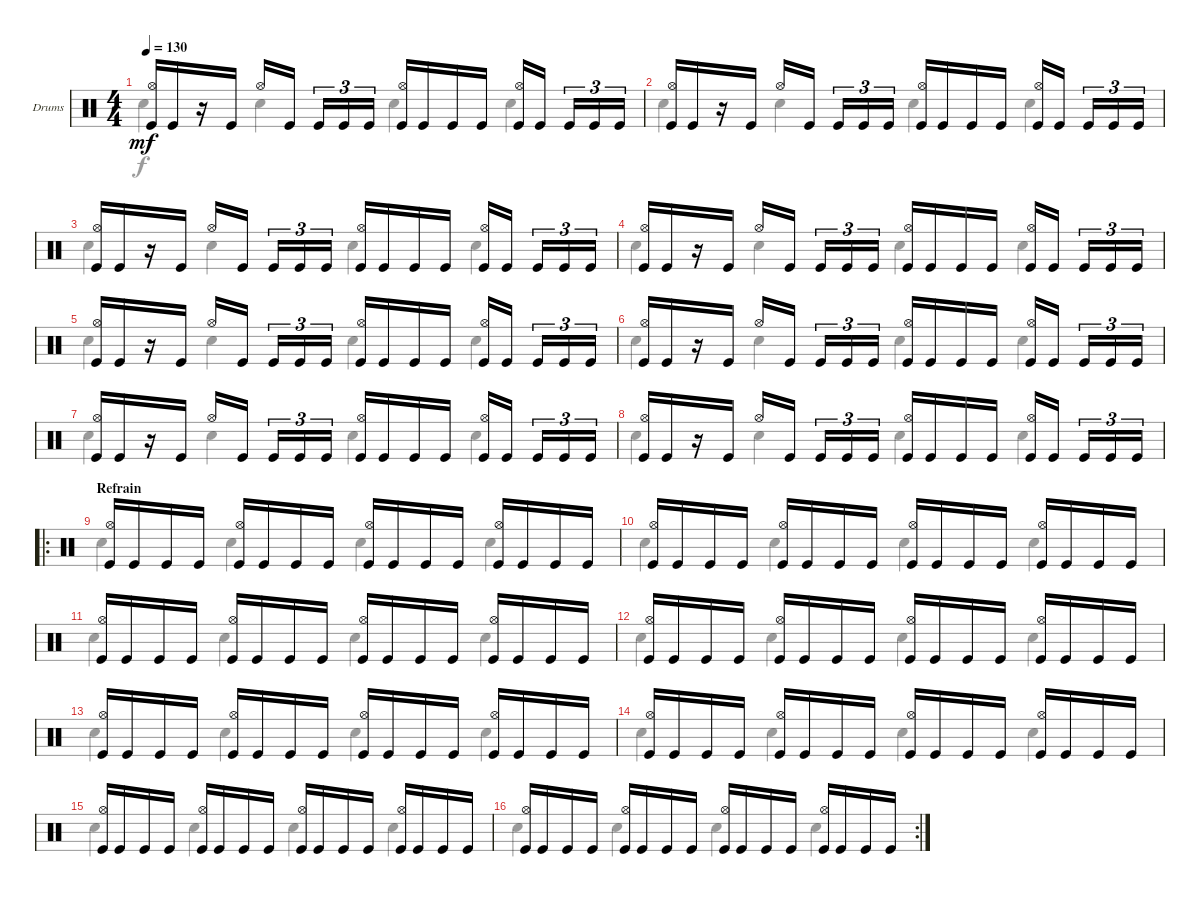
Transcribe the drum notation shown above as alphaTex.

\bracketExtendMode groupsimilarinstruments
\firstSystemTrackNameOrientation horizontal
\otherSystemsTrackNameOrientation horizontal
\track ("Drumkit" "Drums") {instrument percussion}
\staff {score}
\articulation defaults
\voice
\ts (4 4)
\tempo 130
\clef neutral
\ks c
("Kick (hit)" "Hi-Hat (open)").16{dy mf} "Kick (hit)".16 r.16 "Kick (hit)".16 "Hi-Hat (open)".16 "Kick (hit)".16 "Kick (hit)".16{tu (3 2)} "Kick (hit)".16{tu (3 2)} "Kick (hit)".16{tu (3 2)} ("Kick (hit)" "Hi-Hat (open)").16 "Kick (hit)".16 "Kick (hit)".16 "Kick (hit)".16 ("Kick (hit)" "Hi-Hat (open)").16 "Kick (hit)".16 "Kick (hit)".16{tu (3 2)} "Kick (hit)".16{tu (3 2)} "Kick (hit)".16{tu (3 2)} |
("Kick (hit)" "Hi-Hat (open)").16 "Kick (hit)".16 r.16 "Kick (hit)".16 "Hi-Hat (open)".16 "Kick (hit)".16 "Kick (hit)".16{tu (3 2)} "Kick (hit)".16{tu (3 2)} "Kick (hit)".16{tu (3 2)} ("Kick (hit)" "Hi-Hat (open)").16 "Kick (hit)".16 "Kick (hit)".16 "Kick (hit)".16 ("Kick (hit)" "Hi-Hat (open)").16 "Kick (hit)".16 "Kick (hit)".16{tu (3 2)} "Kick (hit)".16{tu (3 2)} "Kick (hit)".16{tu (3 2)} |
("Kick (hit)" "Hi-Hat (open)").16 "Kick (hit)".16 r.16 "Kick (hit)".16 "Hi-Hat (open)".16 "Kick (hit)".16 "Kick (hit)".16{tu (3 2)} "Kick (hit)".16{tu (3 2)} "Kick (hit)".16{tu (3 2)} ("Kick (hit)" "Hi-Hat (open)").16 "Kick (hit)".16 "Kick (hit)".16 "Kick (hit)".16 ("Kick (hit)" "Hi-Hat (open)").16 "Kick (hit)".16 "Kick (hit)".16{tu (3 2)} "Kick (hit)".16{tu (3 2)} "Kick (hit)".16{tu (3 2)} |
("Kick (hit)" "Hi-Hat (open)").16 "Kick (hit)".16 r.16 "Kick (hit)".16 "Hi-Hat (open)".16 "Kick (hit)".16 "Kick (hit)".16{tu (3 2)} "Kick (hit)".16{tu (3 2)} "Kick (hit)".16{tu (3 2)} ("Kick (hit)" "Hi-Hat (open)").16 "Kick (hit)".16 "Kick (hit)".16 "Kick (hit)".16 ("Kick (hit)" "Hi-Hat (open)").16 "Kick (hit)".16 "Kick (hit)".16{tu (3 2)} "Kick (hit)".16{tu (3 2)} "Kick (hit)".16{tu (3 2)} |
("Kick (hit)" "Hi-Hat (open)").16 "Kick (hit)".16 r.16 "Kick (hit)".16 "Hi-Hat (open)".16 "Kick (hit)".16 "Kick (hit)".16{tu (3 2)} "Kick (hit)".16{tu (3 2)} "Kick (hit)".16{tu (3 2)} ("Kick (hit)" "Hi-Hat (open)").16 "Kick (hit)".16 "Kick (hit)".16 "Kick (hit)".16 ("Kick (hit)" "Hi-Hat (open)").16 "Kick (hit)".16 "Kick (hit)".16{tu (3 2)} "Kick (hit)".16{tu (3 2)} "Kick (hit)".16{tu (3 2)} |
("Kick (hit)" "Hi-Hat (open)").16 "Kick (hit)".16 r.16 "Kick (hit)".16 "Hi-Hat (open)".16 "Kick (hit)".16 "Kick (hit)".16{tu (3 2)} "Kick (hit)".16{tu (3 2)} "Kick (hit)".16{tu (3 2)} ("Kick (hit)" "Hi-Hat (open)").16 "Kick (hit)".16 "Kick (hit)".16 "Kick (hit)".16 ("Kick (hit)" "Hi-Hat (open)").16 "Kick (hit)".16 "Kick (hit)".16{tu (3 2)} "Kick (hit)".16{tu (3 2)} "Kick (hit)".16{tu (3 2)} |
("Kick (hit)" "Hi-Hat (open)").16 "Kick (hit)".16 r.16 "Kick (hit)".16 "Hi-Hat (open)".16 "Kick (hit)".16 "Kick (hit)".16{tu (3 2)} "Kick (hit)".16{tu (3 2)} "Kick (hit)".16{tu (3 2)} ("Kick (hit)" "Hi-Hat (open)").16 "Kick (hit)".16 "Kick (hit)".16 "Kick (hit)".16 ("Kick (hit)" "Hi-Hat (open)").16 "Kick (hit)".16 "Kick (hit)".16{tu (3 2)} "Kick (hit)".16{tu (3 2)} "Kick (hit)".16{tu (3 2)} |
("Kick (hit)" "Hi-Hat (open)").16 "Kick (hit)".16 r.16 "Kick (hit)".16 "Hi-Hat (open)".16 "Kick (hit)".16 "Kick (hit)".16{tu (3 2)} "Kick (hit)".16{tu (3 2)} "Kick (hit)".16{tu (3 2)} ("Kick (hit)" "Hi-Hat (open)").16 "Kick (hit)".16 "Kick (hit)".16 "Kick (hit)".16 ("Kick (hit)" "Hi-Hat (open)").16 "Kick (hit)".16 "Kick (hit)".16{tu (3 2)} "Kick (hit)".16{tu (3 2)} "Kick (hit)".16{tu (3 2)} |
\ro
\section ("" "Refrain")
\ks aminor
("Kick (hit)" "Hi-Hat (open)").16 "Kick (hit)".16 "Kick (hit)".16 "Kick (hit)".16 ("Kick (hit)" "Hi-Hat (open)").16 "Kick (hit)".16 "Kick (hit)".16 "Kick (hit)".16 ("Kick (hit)" "Hi-Hat (open)").16 "Kick (hit)".16 "Kick (hit)".16 "Kick (hit)".16 ("Kick (hit)" "Hi-Hat (open)").16 "Kick (hit)".16 "Kick (hit)".16 "Kick (hit)".16 |
("Kick (hit)" "Hi-Hat (open)").16 "Kick (hit)".16 "Kick (hit)".16 "Kick (hit)".16 ("Kick (hit)" "Hi-Hat (open)").16 "Kick (hit)".16 "Kick (hit)".16 "Kick (hit)".16 ("Kick (hit)" "Hi-Hat (open)").16 "Kick (hit)".16 "Kick (hit)".16 "Kick (hit)".16 ("Kick (hit)" "Hi-Hat (open)").16 "Kick (hit)".16 "Kick (hit)".16 "Kick (hit)".16 |
("Kick (hit)" "Hi-Hat (open)").16 "Kick (hit)".16 "Kick (hit)".16 "Kick (hit)".16 ("Kick (hit)" "Hi-Hat (open)").16 "Kick (hit)".16 "Kick (hit)".16 "Kick (hit)".16 ("Kick (hit)" "Hi-Hat (open)").16 "Kick (hit)".16 "Kick (hit)".16 "Kick (hit)".16 ("Kick (hit)" "Hi-Hat (open)").16 "Kick (hit)".16 "Kick (hit)".16 "Kick (hit)".16 |
("Kick (hit)" "Hi-Hat (open)").16 "Kick (hit)".16 "Kick (hit)".16 "Kick (hit)".16 ("Kick (hit)" "Hi-Hat (open)").16 "Kick (hit)".16 "Kick (hit)".16 "Kick (hit)".16 ("Kick (hit)" "Hi-Hat (open)").16 "Kick (hit)".16 "Kick (hit)".16 "Kick (hit)".16 ("Kick (hit)" "Hi-Hat (open)").16 "Kick (hit)".16 "Kick (hit)".16 "Kick (hit)".16 |
("Kick (hit)" "Hi-Hat (open)").16 "Kick (hit)".16 "Kick (hit)".16 "Kick (hit)".16 ("Kick (hit)" "Hi-Hat (open)").16 "Kick (hit)".16 "Kick (hit)".16 "Kick (hit)".16 ("Kick (hit)" "Hi-Hat (open)").16 "Kick (hit)".16 "Kick (hit)".16 "Kick (hit)".16 ("Kick (hit)" "Hi-Hat (open)").16 "Kick (hit)".16 "Kick (hit)".16 "Kick (hit)".16 |
("Kick (hit)" "Hi-Hat (open)").16 "Kick (hit)".16 "Kick (hit)".16 "Kick (hit)".16 ("Kick (hit)" "Hi-Hat (open)").16 "Kick (hit)".16 "Kick (hit)".16 "Kick (hit)".16 ("Kick (hit)" "Hi-Hat (open)").16 "Kick (hit)".16 "Kick (hit)".16 "Kick (hit)".16 ("Kick (hit)" "Hi-Hat (open)").16 "Kick (hit)".16 "Kick (hit)".16 "Kick (hit)".16 |
("Kick (hit)" "Hi-Hat (open)").16 "Kick (hit)".16 "Kick (hit)".16 "Kick (hit)".16 ("Kick (hit)" "Hi-Hat (open)").16 "Kick (hit)".16 "Kick (hit)".16 "Kick (hit)".16 ("Kick (hit)" "Hi-Hat (open)").16 "Kick (hit)".16 "Kick (hit)".16 "Kick (hit)".16 ("Kick (hit)" "Hi-Hat (open)").16 "Kick (hit)".16 "Kick (hit)".16 "Kick (hit)".16 |
\rc 2
("Kick (hit)" "Hi-Hat (open)").16 "Kick (hit)".16 "Kick (hit)".16 "Kick (hit)".16 ("Kick (hit)" "Hi-Hat (open)").16 "Kick (hit)".16 "Kick (hit)".16 "Kick (hit)".16 ("Kick (hit)" "Hi-Hat (open)").16 "Kick (hit)".16 "Kick (hit)".16 "Kick (hit)".16 ("Kick (hit)" "Hi-Hat (open)").16 "Kick (hit)".16 "Kick (hit)".16 "Kick (hit)".16
\voice
\clef neutral
\ottava regular
\simile none
\ks c "Snare (hit) 2".4{dy f} "Snare (hit) 2".4 "Snare (hit) 2".4 "Snare (hit) 2".4
|
"Snare (hit) 2".4 "Snare (hit) 2".4 "Snare (hit) 2".4 "Snare (hit) 2".4 |
"Snare (hit) 2".4 "Snare (hit) 2".4 "Snare (hit) 2".4 "Snare (hit) 2".4 |
"Snare (hit) 2".4 "Snare (hit) 2".4 "Snare (hit) 2".4 "Snare (hit) 2".4 |
"Snare (hit) 2".4 "Snare (hit) 2".4 "Snare (hit) 2".4 "Snare (hit) 2".4 |
"Snare (hit) 2".4 "Snare (hit) 2".4 "Snare (hit) 2".4 "Snare (hit) 2".4 |
"Snare (hit) 2".4 "Snare (hit) 2".4 "Snare (hit) 2".4 "Snare (hit) 2".4 |
"Snare (hit) 2".4 "Snare (hit) 2".4 "Snare (hit) 2".4 "Snare (hit) 2".4 |
\ks aminor "Snare (hit) 2".4 "Snare (hit) 2".4 "Snare (hit) 2".4 "Snare (hit) 2".4
|
"Snare (hit) 2".4 "Snare (hit) 2".4 "Snare (hit) 2".4 "Snare (hit) 2".4 |
"Snare (hit) 2".4 "Snare (hit) 2".4 "Snare (hit) 2".4 "Snare (hit) 2".4 |
"Snare (hit) 2".4 "Snare (hit) 2".4 "Snare (hit) 2".4 "Snare (hit) 2".4 |
"Snare (hit) 2".4 "Snare (hit) 2".4 "Snare (hit) 2".4 "Snare (hit) 2".4 |
"Snare (hit) 2".4 "Snare (hit) 2".4 "Snare (hit) 2".4 "Snare (hit) 2".4 |
"Snare (hit) 2".4 "Snare (hit) 2".4 "Snare (hit) 2".4 "Snare (hit) 2".4 |
"Snare (hit) 2".4 "Snare (hit) 2".4 "Snare (hit) 2".4 "Snare (hit) 2".4
